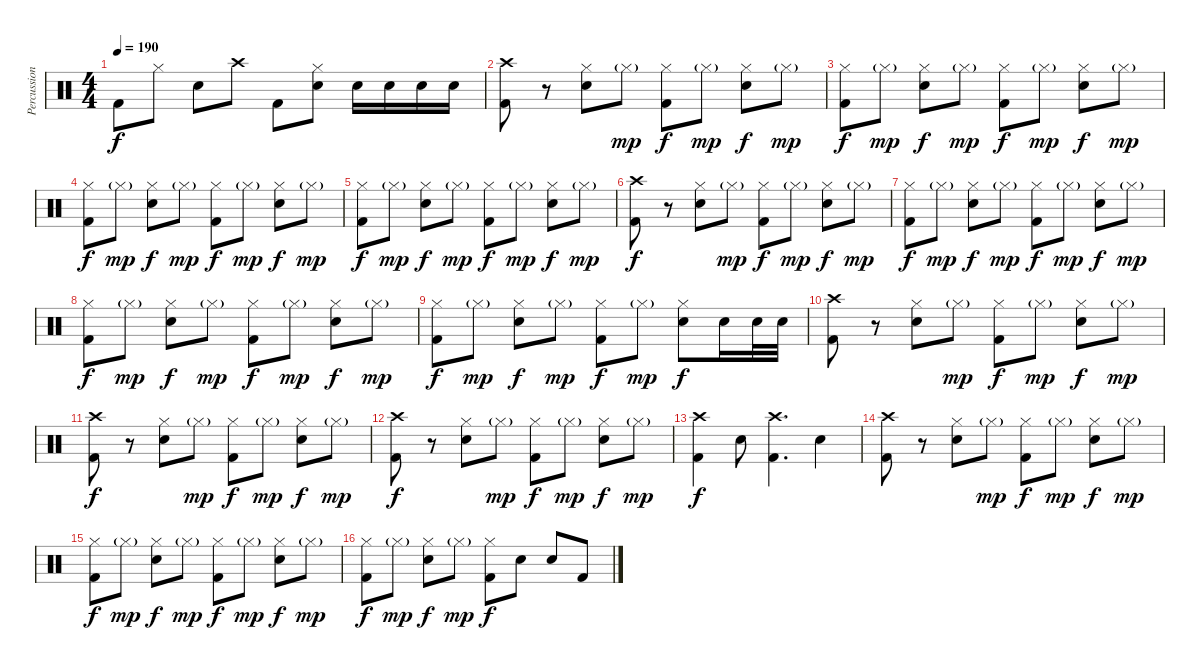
\track ("Percussion" "Percussion") {instrument percussion}
\staff {score}
\articulation defaults
\ts (4 4)
\tempo 190
\clef neutral
\ks c "Kick (hit) 2".8{dy f} "Hi-Hat (closed)".8 "Electric Snare (hit)".8 "Crash high (hit)".8 "Kick (hit) 2".8
("Hi-Hat (closed)" "Electric Snare (hit)").8 "Electric Snare (hit)".16 "Electric Snare (hit)".16 "Electric Snare (hit)".16 "Electric Snare (hit)".16 |
("Crash high (hit)" "Kick (hit) 2").8 r.8 ("Hi-Hat (closed)" "Electric Snare (hit)").8 "Hi-Hat (closed)"{g}.8{dy mp} ("Hi-Hat (closed)" "Kick (hit) 2").8{dy f} "Hi-Hat (closed)"{g}.8{dy mp} ("Hi-Hat (closed)" "Electric Snare (hit)").8{dy f} "Hi-Hat (closed)"{g}.8{dy mp} |
("Hi-Hat (closed)" "Kick (hit) 2").8{dy f} "Hi-Hat (closed)"{g}.8{dy mp} ("Hi-Hat (closed)" "Electric Snare (hit)").8{dy f} "Hi-Hat (closed)"{g}.8{dy mp} ("Hi-Hat (closed)" "Kick (hit) 2").8{dy f} "Hi-Hat (closed)"{g}.8{dy mp} ("Hi-Hat (closed)" "Electric Snare (hit)").8{dy f} "Hi-Hat (closed)"{g}.8{dy mp} |
("Hi-Hat (closed)" "Kick (hit) 2").8{dy f} "Hi-Hat (closed)"{g}.8{dy mp} ("Hi-Hat (closed)" "Electric Snare (hit)").8{dy f} "Hi-Hat (closed)"{g}.8{dy mp} ("Hi-Hat (closed)" "Kick (hit) 2").8{dy f} "Hi-Hat (closed)"{g}.8{dy mp} ("Hi-Hat (closed)" "Electric Snare (hit)").8{dy f} "Hi-Hat (closed)"{g}.8{dy mp} |
("Hi-Hat (closed)" "Kick (hit) 2").8{dy f} "Hi-Hat (closed)"{g}.8{dy mp} ("Hi-Hat (closed)" "Electric Snare (hit)").8{dy f} "Hi-Hat (closed)"{g}.8{dy mp} ("Hi-Hat (closed)" "Kick (hit) 2").8{dy f} "Hi-Hat (closed)"{g}.8{dy mp} ("Hi-Hat (closed)" "Electric Snare (hit)").8{dy f} "Hi-Hat (closed)"{g}.8{dy mp} |
("Crash high (hit)" "Kick (hit) 2").8{dy f} r.8 ("Hi-Hat (closed)" "Electric Snare (hit)").8 "Hi-Hat (closed)"{g}.8{dy mp} ("Hi-Hat (closed)" "Kick (hit) 2").8{dy f} "Hi-Hat (closed)"{g}.8{dy mp} ("Hi-Hat (closed)" "Electric Snare (hit)").8{dy f} "Hi-Hat (closed)"{g}.8{dy mp} |
("Hi-Hat (closed)" "Kick (hit) 2").8{dy f} "Hi-Hat (closed)"{g}.8{dy mp} ("Hi-Hat (closed)" "Electric Snare (hit)").8{dy f} "Hi-Hat (closed)"{g}.8{dy mp} ("Hi-Hat (closed)" "Kick (hit) 2").8{dy f} "Hi-Hat (closed)"{g}.8{dy mp} ("Hi-Hat (closed)" "Electric Snare (hit)").8{dy f} "Hi-Hat (closed)"{g}.8{dy mp} |
("Hi-Hat (closed)" "Kick (hit) 2").8{dy f} "Hi-Hat (closed)"{g}.8{dy mp} ("Hi-Hat (closed)" "Electric Snare (hit)").8{dy f} "Hi-Hat (closed)"{g}.8{dy mp} ("Hi-Hat (closed)" "Kick (hit) 2").8{dy f} "Hi-Hat (closed)"{g}.8{dy mp} ("Hi-Hat (closed)" "Electric Snare (hit)").8{dy f} "Hi-Hat (closed)"{g}.8{dy mp} |
("Hi-Hat (closed)" "Kick (hit) 2").8{dy f} "Hi-Hat (closed)"{g}.8{dy mp} ("Hi-Hat (closed)" "Electric Snare (hit)").8{dy f} "Hi-Hat (closed)"{g}.8{dy mp} ("Hi-Hat (closed)" "Kick (hit) 2").8{dy f} "Hi-Hat (closed)"{g}.8{dy mp} ("Hi-Hat (closed)" "Electric Snare (hit)").8{dy f} "Electric Snare (hit)".16 "Electric Snare (hit)".32 "Electric Snare (hit)".32 |
("Crash high (hit)" "Kick (hit) 2").8 r.8 ("Hi-Hat (closed)" "Electric Snare (hit)").8 "Hi-Hat (closed)"{g}.8{dy mp} ("Hi-Hat (closed)" "Kick (hit) 2").8{dy f} "Hi-Hat (closed)"{g}.8{dy mp} ("Hi-Hat (closed)" "Electric Snare (hit)").8{dy f} "Hi-Hat (closed)"{g}.8{dy mp} |
("Crash high (hit)" "Kick (hit) 2").8{dy f} r.8 ("Hi-Hat (closed)" "Electric Snare (hit)").8 "Hi-Hat (closed)"{g}.8{dy mp} ("Hi-Hat (closed)" "Kick (hit) 2").8{dy f} "Hi-Hat (closed)"{g}.8{dy mp} ("Hi-Hat (closed)" "Electric Snare (hit)").8{dy f} "Hi-Hat (closed)"{g}.8{dy mp} |
("Crash high (hit)" "Kick (hit) 2").8{dy f} r.8 ("Hi-Hat (closed)" "Electric Snare (hit)").8 "Hi-Hat (closed)"{g}.8{dy mp} ("Hi-Hat (closed)" "Kick (hit) 2").8{dy f} "Hi-Hat (closed)"{g}.8{dy mp} ("Hi-Hat (closed)" "Electric Snare (hit)").8{dy f} "Hi-Hat (closed)"{g}.8{dy mp} |
("Crash high (hit)" "Kick (hit) 2").4{dy f} "Electric Snare (hit)".8 ("Crash high (hit)" "Kick (hit) 2").4{d} "Electric Snare (hit)".4 |
("Crash high (hit)" "Kick (hit) 2").8 r.8 ("Hi-Hat (closed)" "Electric Snare (hit)").8 "Hi-Hat (closed)"{g}.8{dy mp} ("Hi-Hat (closed)" "Kick (hit) 2").8{dy f} "Hi-Hat (closed)"{g}.8{dy mp} ("Hi-Hat (closed)" "Electric Snare (hit)").8{dy f} "Hi-Hat (closed)"{g}.8{dy mp} |
("Hi-Hat (closed)" "Kick (hit) 2").8{dy f} "Hi-Hat (closed)"{g}.8{dy mp} ("Hi-Hat (closed)" "Electric Snare (hit)").8{dy f} "Hi-Hat (closed)"{g}.8{dy mp} ("Hi-Hat (closed)" "Kick (hit) 2").8{dy f} "Hi-Hat (closed)"{g}.8{dy mp} ("Hi-Hat (closed)" "Electric Snare (hit)").8{dy f} "Hi-Hat (closed)"{g}.8{dy mp} |
("Hi-Hat (closed)" "Kick (hit) 2").8{dy f} "Hi-Hat (closed)"{g}.8{dy mp} ("Hi-Hat (closed)" "Electric Snare (hit)").8{dy f} "Hi-Hat (closed)"{g}.8{dy mp} ("Hi-Hat (closed)" "Kick (hit) 2").8{dy f} "Electric Snare (hit)".8 "Electric Snare (hit)".8 "Kick (hit) 2".8
